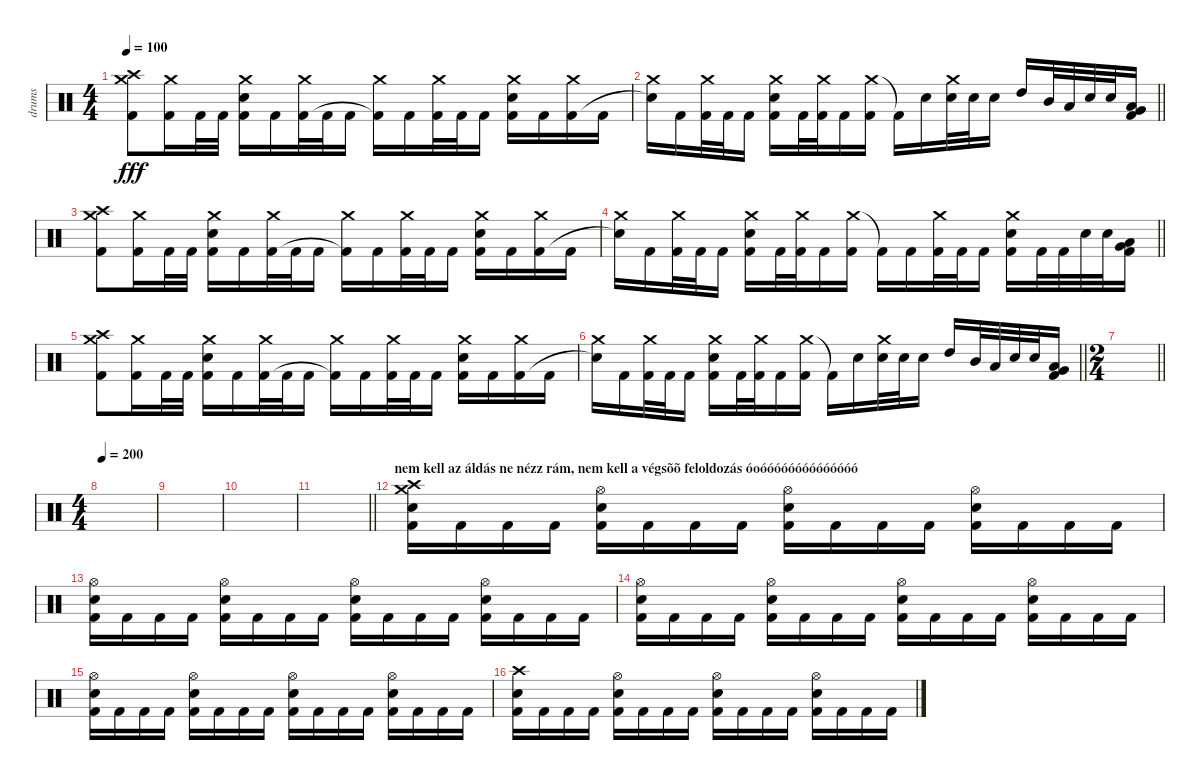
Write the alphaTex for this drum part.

\track ("drums" "drums") {instrument percussion}
\staff {score}
\articulation defaults
\ts (4 4)
\tempo 100
\clef neutral
\ks c
("Crash high (hit)" "Crash medium (hit)" "Kick (hit) 2").8{dy fff} ("Crash medium (hit)" "Kick (hit) 2").16 "Kick (hit) 2".32 "Kick (hit) 2".32 ("Crash medium (hit)" "Electric Snare (hit)" "Kick (hit) 2").16 "Kick (hit) 2".16 ("Crash medium (hit)" "Kick (hit) 2").32 "Kick (hit) 2".32 "Kick (hit) 2".16 ("Crash medium (hit)" "Kick (hit) 2"{t}).16 "Kick (hit) 2".16 ("Crash medium (hit)" "Kick (hit) 2").32 "Kick (hit) 2".32 "Kick (hit) 2".16 ("Crash medium (hit)" "Electric Snare (hit)" "Kick (hit) 2").16 "Kick (hit) 2".16 ("Crash medium (hit)" "Kick (hit) 2").16 "Kick (hit) 2".16 |
\barLineRight lightlight
("Crash medium (hit)" "Snare (hit)"{t}).16 "Kick (hit) 2".16 ("Crash medium (hit)" "Kick (hit) 2").32 "Kick (hit) 2".32 "Kick (hit) 2".16 ("Crash medium (hit)" "Electric Snare (hit)" "Kick (hit) 2").16 "Kick (hit) 2".32 ("Crash medium (hit)" "Kick (hit) 2").32 "Kick (hit) 2".16 ("Crash medium (hit)" "Kick (hit) 2").16 "Kick (hit) 2"{t}.16 "Electric Snare (hit)".16 ("Crash medium (hit)" "Electric Snare (hit)").32 "Electric Snare (hit)".32 "Electric Snare (hit)".16 "High Tom (hit)".16 "Mid Tom (hit)".32 "Low Tom (hit)".32 "Electric Snare (hit)".32 "Electric Snare (hit)".32 ("Very Low Tom (hit)" "Low Floor Tom (hit)" "Kick (hit) 2").16 |
("Crash high (hit)" "Crash medium (hit)" "Kick (hit) 2").8 ("Crash medium (hit)" "Kick (hit) 2").16 "Kick (hit) 2".32 "Kick (hit) 2".32 ("Crash medium (hit)" "Electric Snare (hit)" "Kick (hit) 2").16 "Kick (hit) 2".16 ("Crash medium (hit)" "Kick (hit) 2").32 "Kick (hit) 2".32 "Kick (hit) 2".16 ("Crash medium (hit)" "Kick (hit) 2"{t}).16 "Kick (hit) 2".16 ("Crash medium (hit)" "Kick (hit) 2").32 "Kick (hit) 2".32 "Kick (hit) 2".16 ("Crash medium (hit)" "Electric Snare (hit)" "Kick (hit) 2").16 "Kick (hit) 2".16 ("Crash medium (hit)" "Kick (hit) 2").16 "Kick (hit) 2".16 |
\barLineRight lightlight
("Crash medium (hit)" "Snare (hit)"{t}).16 "Kick (hit) 2".16 ("Crash medium (hit)" "Kick (hit) 2").32 "Kick (hit) 2".32 "Kick (hit) 2".16 ("Crash medium (hit)" "Electric Snare (hit)" "Kick (hit) 2").16 "Kick (hit) 2".32 ("Crash medium (hit)" "Kick (hit) 2").32 "Kick (hit) 2".16 ("Crash medium (hit)" "Kick (hit) 2").16 "Kick (hit) 2"{t}.16 "Kick (hit) 2".16 ("Crash medium (hit)" "Kick (hit) 2").32 "Kick (hit) 2".32 "Kick (hit) 2".16 ("Crash medium (hit)" "Electric Snare (hit)" "Kick (hit) 2").16 "Kick (hit) 2".32 "Kick (hit) 2".32 "Electric Snare (hit)".32 "Electric Snare (hit)".32 ("Very Low Tom (hit)" "Low Floor Tom (hit)" "Kick (hit) 2").16 |
("Crash high (hit)" "Crash medium (hit)" "Kick (hit) 2").8 ("Crash medium (hit)" "Kick (hit) 2").16 "Kick (hit) 2".32 "Kick (hit) 2".32 ("Crash medium (hit)" "Electric Snare (hit)" "Kick (hit) 2").16 "Kick (hit) 2".16 ("Crash medium (hit)" "Kick (hit) 2").32 "Kick (hit) 2".32 "Kick (hit) 2".16 ("Crash medium (hit)" "Kick (hit) 2"{t}).16 "Kick (hit) 2".16 ("Crash medium (hit)" "Kick (hit) 2").32 "Kick (hit) 2".32 "Kick (hit) 2".16 ("Crash medium (hit)" "Electric Snare (hit)" "Kick (hit) 2").16 "Kick (hit) 2".16 ("Crash medium (hit)" "Kick (hit) 2").16 "Kick (hit) 2".16 |
\barLineRight lightlight
("Crash medium (hit)" "Snare (hit)"{t}).16 "Kick (hit) 2".16 ("Crash medium (hit)" "Kick (hit) 2").32 "Kick (hit) 2".32 "Kick (hit) 2".16 ("Crash medium (hit)" "Electric Snare (hit)" "Kick (hit) 2").16 "Kick (hit) 2".32 ("Crash medium (hit)" "Kick (hit) 2").32 "Kick (hit) 2".16 ("Crash medium (hit)" "Kick (hit) 2").16 "Kick (hit) 2"{t}.16 "Electric Snare (hit)".16 ("Crash medium (hit)" "Electric Snare (hit)").32 "Electric Snare (hit)".32 "Electric Snare (hit)".16 "High Tom (hit)".16 "Mid Tom (hit)".32 "Low Tom (hit)".32 "Electric Snare (hit)".32 "Electric Snare (hit)".32 ("Very Low Tom (hit)" "Low Floor Tom (hit)" "Kick (hit) 2").16 |
\ts (2 4)
\barLineRight lightlight
|
\ts (4 4)
\section ("" "")
\tempo 200
|
|
|
\barLineRight lightlight
|
\section ("" "nem kell az áldás ne nézz rám, nem kell a végsõõ feloldozás óoóóóóóóóóóóóóóó")
("Crash high (hit)" "Crash medium (hit)" "Electric Snare (hit)" "Kick (hit) 2").16 "Kick (hit) 2".16 "Kick (hit) 2".16 "Kick (hit) 2".16 ("Hi-Hat (open)" "Electric Snare (hit)" "Kick (hit) 2").16 "Kick (hit) 2".16 "Kick (hit) 2".16 "Kick (hit) 2".16 ("Hi-Hat (open)" "Electric Snare (hit)" "Kick (hit) 2").16 "Kick (hit) 2".16 "Kick (hit) 2".16 "Kick (hit) 2".16 ("Hi-Hat (open)" "Electric Snare (hit)" "Kick (hit) 2").16 "Kick (hit) 2".16 "Kick (hit) 2".16 "Kick (hit) 2".16 |
("Hi-Hat (open)" "Electric Snare (hit)" "Kick (hit) 2").16 "Kick (hit) 2".16 "Kick (hit) 2".16 "Kick (hit) 2".16 ("Hi-Hat (open)" "Electric Snare (hit)" "Kick (hit) 2").16 "Kick (hit) 2".16 "Kick (hit) 2".16 "Kick (hit) 2".16 ("Hi-Hat (open)" "Electric Snare (hit)" "Kick (hit) 2").16 "Kick (hit) 2".16 "Kick (hit) 2".16 "Kick (hit) 2".16 ("Hi-Hat (open)" "Electric Snare (hit)" "Kick (hit) 2").16 "Kick (hit) 2".16 "Kick (hit) 2".16 "Kick (hit) 2".16 |
("Hi-Hat (open)" "Electric Snare (hit)" "Kick (hit) 2").16 "Kick (hit) 2".16 "Kick (hit) 2".16 "Kick (hit) 2".16 ("Hi-Hat (open)" "Electric Snare (hit)" "Kick (hit) 2").16 "Kick (hit) 2".16 "Kick (hit) 2".16 "Kick (hit) 2".16 ("Hi-Hat (open)" "Electric Snare (hit)" "Kick (hit) 2").16 "Kick (hit) 2".16 "Kick (hit) 2".16 "Kick (hit) 2".16 ("Hi-Hat (open)" "Electric Snare (hit)" "Kick (hit) 2").16 "Kick (hit) 2".16 "Kick (hit) 2".16 "Kick (hit) 2".16 |
("Hi-Hat (open)" "Electric Snare (hit)" "Kick (hit) 2").16 "Kick (hit) 2".16 "Kick (hit) 2".16 "Kick (hit) 2".16 ("Hi-Hat (open)" "Electric Snare (hit)" "Kick (hit) 2").16 "Kick (hit) 2".16 "Kick (hit) 2".16 "Kick (hit) 2".16 ("Hi-Hat (open)" "Electric Snare (hit)" "Kick (hit) 2").16 "Kick (hit) 2".16 "Kick (hit) 2".16 "Kick (hit) 2".16 ("Hi-Hat (open)" "Electric Snare (hit)" "Kick (hit) 2").16 "Kick (hit) 2".16 "Kick (hit) 2".16 "Kick (hit) 2".16 |
("Crash high (hit)" "Electric Snare (hit)" "Kick (hit) 2").16 "Kick (hit) 2".16 "Kick (hit) 2".16 "Kick (hit) 2".16 ("Hi-Hat (open)" "Electric Snare (hit)" "Kick (hit) 2").16 "Kick (hit) 2".16 "Kick (hit) 2".16 "Kick (hit) 2".16 ("Hi-Hat (open)" "Electric Snare (hit)" "Kick (hit) 2").16 "Kick (hit) 2".16 "Kick (hit) 2".16 "Kick (hit) 2".16 ("Hi-Hat (open)" "Electric Snare (hit)" "Kick (hit) 2").16 "Kick (hit) 2".16 "Kick (hit) 2".16 "Kick (hit) 2".16
